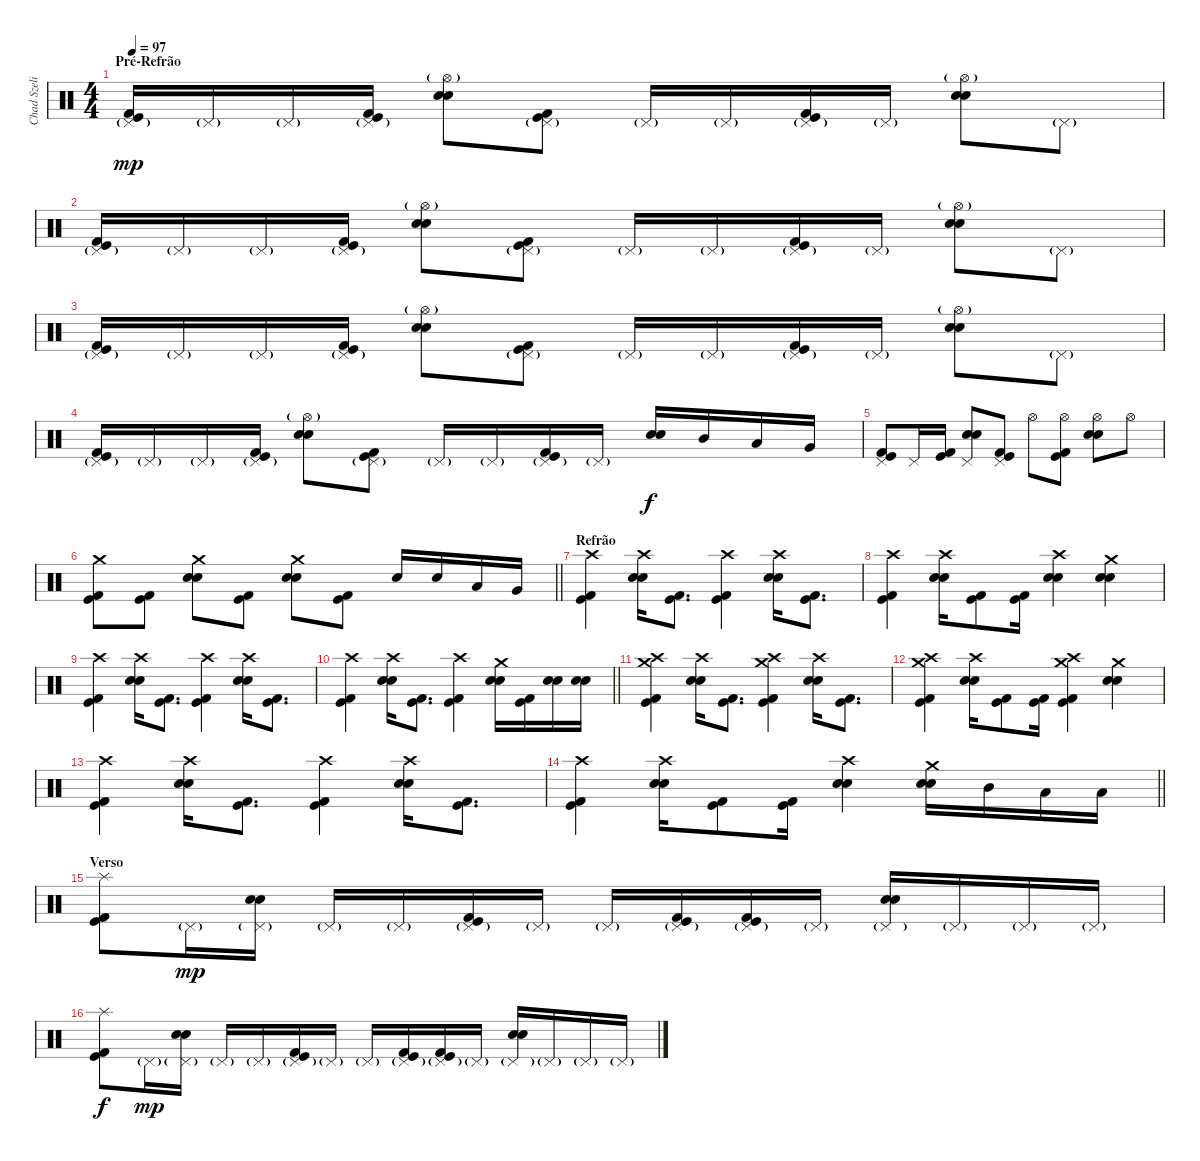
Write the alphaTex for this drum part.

\track ("Chad Szeliga" "Chad Szeli") {instrument percussion}
\staff {score}
\articulation defaults
\ts (4 4)
\section ("" "Pré-Refrão")
\tempo 97
\clef neutral
\ks c
("Kick (hit) 2" "Kick (hit)" "Pedal Hi-Hat (hit)"{g}).16{dy mp} "Pedal Hi-Hat (hit)"{g}.16 "Pedal Hi-Hat (hit)"{g}.16 ("Kick (hit) 2" "Kick (hit)" "Pedal Hi-Hat (hit)"{g}).16 ("Snare (hit) 2" "Snare (hit) 2" "Hi-Hat (open)"{g}).8 ("Kick (hit) 2" "Kick (hit)" "Pedal Hi-Hat (hit)"{g}).8 "Pedal Hi-Hat (hit)"{g}.16 "Pedal Hi-Hat (hit)"{g}.16 ("Kick (hit) 2" "Kick (hit)" "Pedal Hi-Hat (hit)"{g}).16 "Pedal Hi-Hat (hit)"{g}.16 ("Snare (hit) 2" "Snare (hit) 2" "Hi-Hat (open)"{g}).8 "Pedal Hi-Hat (hit)"{g}.8 |
("Kick (hit) 2" "Kick (hit)" "Pedal Hi-Hat (hit)"{g}).16 "Pedal Hi-Hat (hit)"{g}.16 "Pedal Hi-Hat (hit)"{g}.16 ("Kick (hit) 2" "Kick (hit)" "Pedal Hi-Hat (hit)"{g}).16 ("Snare (hit) 2" "Snare (hit) 2" "Hi-Hat (open)"{g}).8 ("Kick (hit) 2" "Kick (hit)" "Pedal Hi-Hat (hit)"{g}).8 "Pedal Hi-Hat (hit)"{g}.16 "Pedal Hi-Hat (hit)"{g}.16 ("Kick (hit) 2" "Kick (hit)" "Pedal Hi-Hat (hit)"{g}).16 "Pedal Hi-Hat (hit)"{g}.16 ("Snare (hit) 2" "Snare (hit) 2" "Hi-Hat (open)"{g}).8 "Pedal Hi-Hat (hit)"{g}.8 |
("Kick (hit) 2" "Kick (hit)" "Pedal Hi-Hat (hit)"{g}).16 "Pedal Hi-Hat (hit)"{g}.16 "Pedal Hi-Hat (hit)"{g}.16 ("Kick (hit) 2" "Kick (hit)" "Pedal Hi-Hat (hit)"{g}).16 ("Snare (hit) 2" "Snare (hit) 2" "Hi-Hat (open)"{g}).8 ("Kick (hit) 2" "Kick (hit)" "Pedal Hi-Hat (hit)"{g}).8 "Pedal Hi-Hat (hit)"{g}.16 "Pedal Hi-Hat (hit)"{g}.16 ("Kick (hit) 2" "Kick (hit)" "Pedal Hi-Hat (hit)"{g}).16 "Pedal Hi-Hat (hit)"{g}.16 ("Snare (hit) 2" "Snare (hit) 2" "Hi-Hat (open)"{g}).8 "Pedal Hi-Hat (hit)"{g}.8 |
("Kick (hit) 2" "Kick (hit)" "Pedal Hi-Hat (hit)"{g}).16 "Pedal Hi-Hat (hit)"{g}.16 "Pedal Hi-Hat (hit)"{g}.16 ("Kick (hit) 2" "Kick (hit)" "Pedal Hi-Hat (hit)"{g}).16 ("Snare (hit) 2" "Snare (hit) 2" "Hi-Hat (open)"{g}).8 ("Kick (hit) 2" "Kick (hit)" "Pedal Hi-Hat (hit)"{g}).8 "Pedal Hi-Hat (hit)"{g}.16 "Pedal Hi-Hat (hit)"{g}.16 ("Kick (hit) 2" "Kick (hit)" "Pedal Hi-Hat (hit)"{g}).16 "Pedal Hi-Hat (hit)"{g}.16 ("Snare (hit) 2" "Snare (hit) 2").16{dy f} "Mid Tom (hit)".16 "Low Tom (hit)".16 "Very Low Tom (hit)".16 |
("Kick (hit) 2" "Kick (hit)" "Pedal Hi-Hat (hit)").8 "Pedal Hi-Hat (hit)".16 ("Kick (hit) 2" "Kick (hit)").16 ("Snare (hit) 2" "Snare (hit) 2" "Pedal Hi-Hat (hit)").8 ("Kick (hit) 2" "Kick (hit)" "Pedal Hi-Hat (hit)").8 "Hi-Hat (open)".8 ("Kick (hit) 2" "Kick (hit)" "Hi-Hat (open)").8 ("Snare (hit) 2" "Snare (hit) 2" "Hi-Hat (open)").8 "Hi-Hat (open)".8 |
\barLineRight lightlight
("Crash medium (hit)" "Kick (hit) 2" "Kick (hit)").8 ("Kick (hit) 2" "Kick (hit)").8 ("Crash medium (hit)" "Snare (hit) 2" "Snare (hit) 2").8 ("Kick (hit) 2" "Kick (hit)").8 ("Crash medium (hit)" "Snare (hit) 2" "Snare (hit) 2").8 ("Kick (hit) 2" "Kick (hit)").8 "Snare (hit) 2".16 "Snare (hit) 2".16 "Low Tom (hit)".16 "Very Low Tom (hit)".16 |
\section ("" "Refrão")
("Crash high (hit)" "Kick (hit) 2" "Kick (hit)").4 ("Crash high (hit)" "Snare (hit) 2" "Snare (hit) 2").16 ("Kick (hit) 2" "Kick (hit)").8{d} ("Crash high (hit)" "Kick (hit) 2" "Kick (hit)").4 ("Crash high (hit)" "Snare (hit) 2" "Snare (hit) 2").16 ("Kick (hit) 2" "Kick (hit)").8{d} |
("Crash high (hit)" "Kick (hit) 2" "Kick (hit)").4 ("Crash high (hit)" "Snare (hit) 2" "Snare (hit) 2").16 ("Kick (hit) 2" "Kick (hit)").8 ("Kick (hit) 2" "Kick (hit)").16 ("Crash high (hit)" "Snare (hit) 2" "Snare (hit) 2").4 ("Crash medium (hit)" "Snare (hit) 2" "Snare (hit) 2").4 |
("Crash high (hit)" "Kick (hit) 2" "Kick (hit)").4 ("Crash high (hit)" "Snare (hit) 2" "Snare (hit) 2").16 ("Kick (hit) 2" "Kick (hit)").8{d} ("Crash high (hit)" "Kick (hit) 2" "Kick (hit)").4 ("Crash high (hit)" "Snare (hit) 2" "Snare (hit) 2").16 ("Kick (hit) 2" "Kick (hit)").8{d} |
\barLineRight lightlight
("Crash high (hit)" "Kick (hit) 2" "Kick (hit)").4 ("Crash high (hit)" "Snare (hit) 2" "Snare (hit) 2").16 ("Kick (hit) 2" "Kick (hit)").8{d} ("Crash high (hit)" "Kick (hit) 2" "Kick (hit)").4 ("Crash medium (hit)" "Snare (hit) 2" "Snare (hit) 2").16 ("Kick (hit) 2" "Kick (hit)").16 ("Snare (hit) 2" "Snare (hit) 2").16 ("Snare (hit) 2" "Snare (hit) 2").16 |
("Crash high (hit)" "Kick (hit) 2" "Kick (hit)" "Crash medium (hit)").4 ("Crash high (hit)" "Snare (hit) 2" "Snare (hit) 2").16 ("Kick (hit) 2" "Kick (hit)").8{d} ("Crash high (hit)" "Kick (hit) 2" "Kick (hit)" "Crash medium (hit)").4 ("Crash high (hit)" "Snare (hit) 2" "Snare (hit) 2").16 ("Kick (hit) 2" "Kick (hit)").8{d} |
("Crash high (hit)" "Kick (hit) 2" "Kick (hit)" "Crash medium (hit)").4 ("Crash high (hit)" "Snare (hit) 2" "Snare (hit) 2").16 ("Kick (hit) 2" "Kick (hit)").8 ("Kick (hit) 2" "Kick (hit)").16 ("Crash high (hit)" "Kick (hit) 2" "Kick (hit)" "Crash medium (hit)").4 ("Crash medium (hit)" "Snare (hit) 2" "Snare (hit) 2").4 |
("Crash high (hit)" "Kick (hit) 2" "Kick (hit)").4 ("Crash high (hit)" "Snare (hit) 2" "Snare (hit) 2").16 ("Kick (hit) 2" "Kick (hit)").8{d} ("Crash high (hit)" "Kick (hit) 2" "Kick (hit)").4 ("Crash high (hit)" "Snare (hit) 2" "Snare (hit) 2").16 ("Kick (hit) 2" "Kick (hit)").8{d} |
\barLineRight lightlight
("Crash high (hit)" "Kick (hit) 2" "Kick (hit)").4 ("Crash high (hit)" "Snare (hit) 2" "Snare (hit) 2").16 ("Kick (hit) 2" "Kick (hit)").8 ("Kick (hit) 2" "Kick (hit)").16 ("Crash high (hit)" "Snare (hit) 2" "Snare (hit) 2").4 ("Crash medium (hit)" "Snare (hit) 2" "Snare (hit) 2").16 "Mid Tom (hit)".16 "Low Tom (hit)".16 "Low Tom (hit)".16 |
\section ("" "Verso")
("Splash (hit)" "Kick (hit) 2" "Kick (hit)").8 "Pedal Hi-Hat (hit)"{g}.16{dy mp} ("Snare (hit) 2" "Snare (hit) 2" "Pedal Hi-Hat (hit)"{g}).16 "Pedal Hi-Hat (hit)"{g}.16 "Pedal Hi-Hat (hit)"{g}.16 ("Kick (hit) 2" "Kick (hit)" "Pedal Hi-Hat (hit)"{g}).16 "Pedal Hi-Hat (hit)"{g}.16 "Pedal Hi-Hat (hit)"{g}.16 ("Kick (hit) 2" "Kick (hit)" "Pedal Hi-Hat (hit)"{g}).16 ("Kick (hit) 2" "Kick (hit)" "Pedal Hi-Hat (hit)"{g}).16 "Pedal Hi-Hat (hit)"{g}.16 ("Snare (hit) 2" "Snare (hit) 2" "Pedal Hi-Hat (hit)"{g}).16 "Pedal Hi-Hat (hit)"{g}.16 "Pedal Hi-Hat (hit)"{g}.16 "Pedal Hi-Hat (hit)"{g}.16 |
("Splash (hit)" "Kick (hit) 2" "Kick (hit)").8{dy f} "Pedal Hi-Hat (hit)"{g}.16{dy mp} ("Snare (hit) 2" "Snare (hit) 2" "Pedal Hi-Hat (hit)"{g}).16 "Pedal Hi-Hat (hit)"{g}.16 "Pedal Hi-Hat (hit)"{g}.16 ("Kick (hit) 2" "Kick (hit)" "Pedal Hi-Hat (hit)"{g}).16 "Pedal Hi-Hat (hit)"{g}.16 "Pedal Hi-Hat (hit)"{g}.16 ("Kick (hit) 2" "Kick (hit)" "Pedal Hi-Hat (hit)"{g}).16 ("Kick (hit) 2" "Kick (hit)" "Pedal Hi-Hat (hit)"{g}).16 "Pedal Hi-Hat (hit)"{g}.16 ("Snare (hit) 2" "Snare (hit) 2" "Pedal Hi-Hat (hit)"{g}).16 "Pedal Hi-Hat (hit)"{g}.16 "Pedal Hi-Hat (hit)"{g}.16 "Pedal Hi-Hat (hit)"{g}.16
